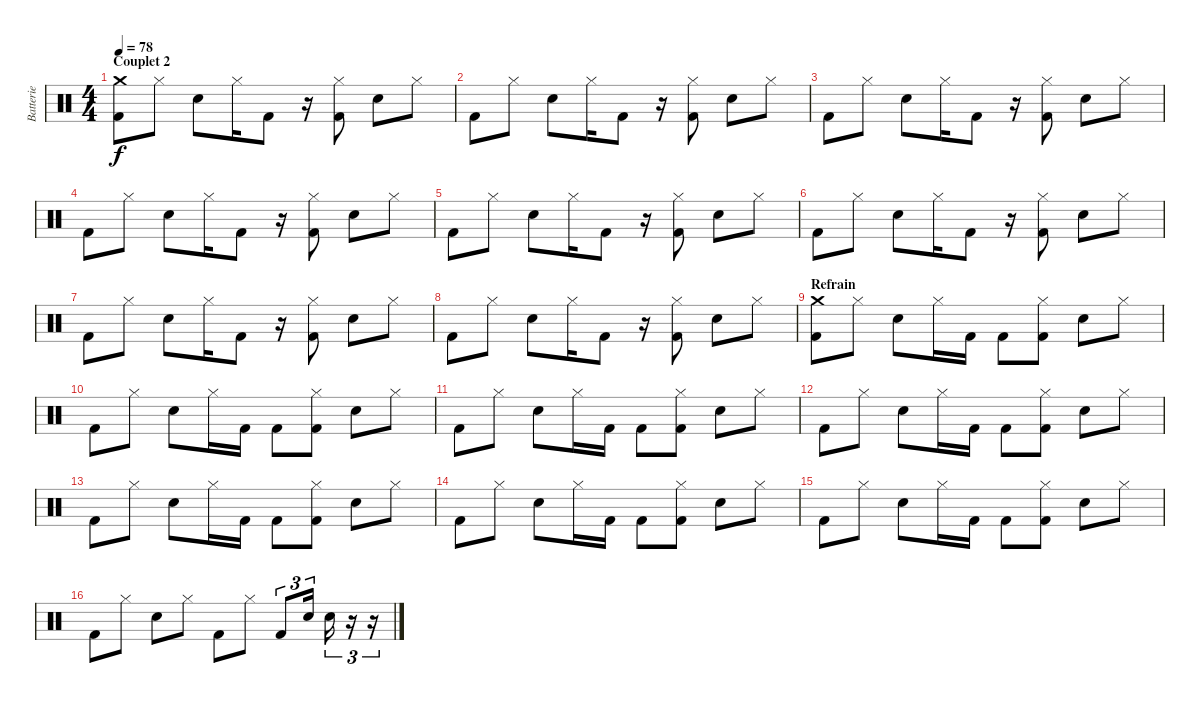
\track ("Batterie" "Batterie") {instrument percussion}
\staff {score}
\articulation defaults
\ts (4 4)
\section ("" "Couplet 2")
\tempo 78
\clef neutral
\ks c
("Crash medium (hit)" "Kick (hit) 2").8{dy f} "Hi-Hat (closed)".8 "Electric Snare (hit)".8 "Hi-Hat (closed)".16 "Kick (hit) 2".8 r.16 ("Hi-Hat (closed)" "Kick (hit) 2").8 "Electric Snare (hit)".8 "Hi-Hat (closed)".8 |
"Kick (hit) 2".8 "Hi-Hat (closed)".8 "Electric Snare (hit)".8 "Hi-Hat (closed)".16 "Kick (hit) 2".8 r.16 ("Hi-Hat (closed)" "Kick (hit) 2").8 "Electric Snare (hit)".8 "Hi-Hat (closed)".8 |
"Kick (hit) 2".8 "Hi-Hat (closed)".8 "Electric Snare (hit)".8 "Hi-Hat (closed)".16 "Kick (hit) 2".8 r.16 ("Hi-Hat (closed)" "Kick (hit) 2").8 "Electric Snare (hit)".8 "Hi-Hat (closed)".8 |
"Kick (hit) 2".8 "Hi-Hat (closed)".8 "Electric Snare (hit)".8 "Hi-Hat (closed)".16 "Kick (hit) 2".8 r.16 ("Hi-Hat (closed)" "Kick (hit) 2").8 "Electric Snare (hit)".8 "Hi-Hat (closed)".8 |
"Kick (hit) 2".8 "Hi-Hat (closed)".8 "Electric Snare (hit)".8 "Hi-Hat (closed)".16 "Kick (hit) 2".8 r.16 ("Hi-Hat (closed)" "Kick (hit) 2").8 "Electric Snare (hit)".8 "Hi-Hat (closed)".8 |
"Kick (hit) 2".8 "Hi-Hat (closed)".8 "Electric Snare (hit)".8 "Hi-Hat (closed)".16 "Kick (hit) 2".8 r.16 ("Hi-Hat (closed)" "Kick (hit) 2").8 "Electric Snare (hit)".8 "Hi-Hat (closed)".8 |
"Kick (hit) 2".8 "Hi-Hat (closed)".8 "Electric Snare (hit)".8 "Hi-Hat (closed)".16 "Kick (hit) 2".8 r.16 ("Hi-Hat (closed)" "Kick (hit) 2").8 "Electric Snare (hit)".8 "Hi-Hat (closed)".8 |
"Kick (hit) 2".8 "Hi-Hat (closed)".8 "Electric Snare (hit)".8 "Hi-Hat (closed)".16 "Kick (hit) 2".8 r.16 ("Hi-Hat (closed)" "Kick (hit) 2").8 "Electric Snare (hit)".8 "Hi-Hat (closed)".8 |
\section ("" "Refrain")
("Crash medium (hit)" "Kick (hit) 2").8 "Hi-Hat (closed)".8 "Electric Snare (hit)".8 "Hi-Hat (closed)".16 "Kick (hit) 2".16 "Kick (hit) 2".8 ("Hi-Hat (closed)" "Kick (hit) 2").8 "Electric Snare (hit)".8 "Hi-Hat (closed)".8 |
"Kick (hit) 2".8 "Hi-Hat (closed)".8 "Electric Snare (hit)".8 "Hi-Hat (closed)".16 "Kick (hit) 2".16 "Kick (hit) 2".8 ("Hi-Hat (closed)" "Kick (hit) 2").8 "Electric Snare (hit)".8 "Hi-Hat (closed)".8 |
"Kick (hit) 2".8 "Hi-Hat (closed)".8 "Electric Snare (hit)".8 "Hi-Hat (closed)".16 "Kick (hit) 2".16 "Kick (hit) 2".8 ("Hi-Hat (closed)" "Kick (hit) 2").8 "Electric Snare (hit)".8 "Hi-Hat (closed)".8 |
"Kick (hit) 2".8 "Hi-Hat (closed)".8 "Electric Snare (hit)".8 "Hi-Hat (closed)".16 "Kick (hit) 2".16 "Kick (hit) 2".8 ("Hi-Hat (closed)" "Kick (hit) 2").8 "Electric Snare (hit)".8 "Hi-Hat (closed)".8 |
"Kick (hit) 2".8 "Hi-Hat (closed)".8 "Electric Snare (hit)".8 "Hi-Hat (closed)".16 "Kick (hit) 2".16 "Kick (hit) 2".8 ("Hi-Hat (closed)" "Kick (hit) 2").8 "Electric Snare (hit)".8 "Hi-Hat (closed)".8 |
"Kick (hit) 2".8 "Hi-Hat (closed)".8 "Electric Snare (hit)".8 "Hi-Hat (closed)".16 "Kick (hit) 2".16 "Kick (hit) 2".8 ("Hi-Hat (closed)" "Kick (hit) 2").8 "Electric Snare (hit)".8 "Hi-Hat (closed)".8 |
"Kick (hit) 2".8 "Hi-Hat (closed)".8 "Electric Snare (hit)".8 "Hi-Hat (closed)".16 "Kick (hit) 2".16 "Kick (hit) 2".8 ("Hi-Hat (closed)" "Kick (hit) 2").8 "Electric Snare (hit)".8 "Hi-Hat (closed)".8 |
"Kick (hit) 2".8 "Hi-Hat (closed)".8 "Electric Snare (hit)".8 "Hi-Hat (closed)".8 "Kick (hit) 2".8 "Hi-Hat (closed)".8 "Kick (hit) 2".8{tu (3 2)} "Electric Snare (hit)".16{tu (3 2)} "Electric Snare (hit)".16{tu (3 2)} r.16{tu (3 2)} r.16{tu (3 2)}
